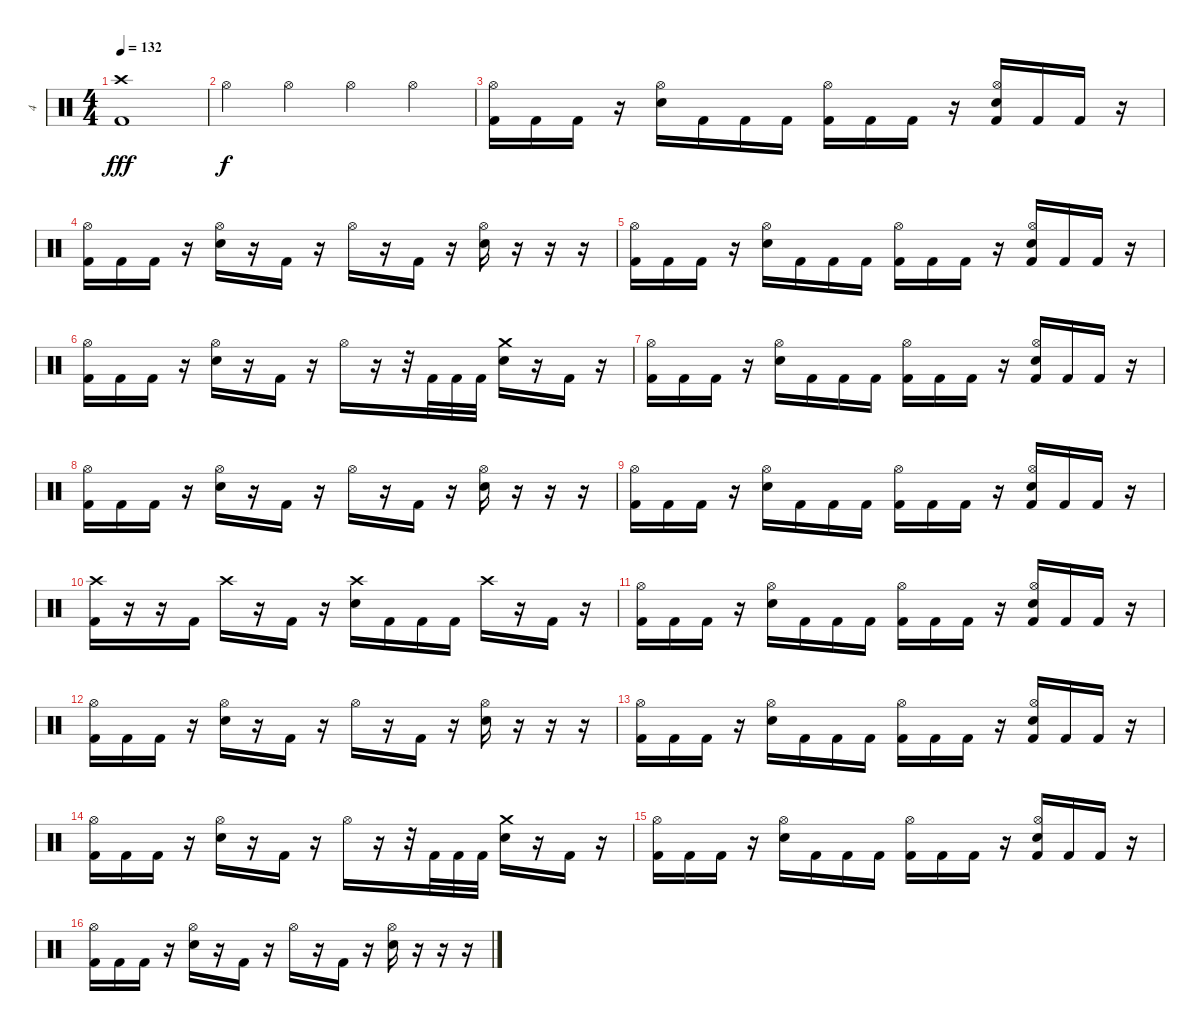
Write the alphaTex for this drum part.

\track ("4" "4") {instrument percussion}
\staff {score}
\articulation defaults
\ts (4 4)
\tempo 132
\clef neutral
\ks c
("Crash high (hit)" "Kick (hit) 2").1{dy fff} |
"Hi-Hat (open)".4{dy f} "Hi-Hat (open)".4 "Hi-Hat (open)".4 "Hi-Hat (open)".4 |
("Hi-Hat (open)" "Kick (hit) 2").16 "Kick (hit) 2".16 "Kick (hit) 2".16 r.16 ("Hi-Hat (open)" "Snare (hit) 2").16 "Kick (hit) 2".16 "Kick (hit) 2".16 "Kick (hit) 2".16 ("Hi-Hat (open)" "Kick (hit) 2").16 "Kick (hit) 2".16 "Kick (hit) 2".16 r.16 ("Hi-Hat (open)" "Snare (hit) 2" "Kick (hit) 2").16 "Kick (hit) 2".16 "Kick (hit) 2".16 r.16 |
("Hi-Hat (open)" "Kick (hit) 2").16 "Kick (hit) 2".16 "Kick (hit) 2".16 r.16 ("Hi-Hat (open)" "Snare (hit) 2").16 r.16 "Kick (hit) 2".16 r.16 "Hi-Hat (open)".16 r.16 "Kick (hit) 2".16 r.16 ("Hi-Hat (open)" "Snare (hit) 2").16 r.16 r.16 r.16 |
("Hi-Hat (open)" "Kick (hit) 2").16 "Kick (hit) 2".16 "Kick (hit) 2".16 r.16 ("Hi-Hat (open)" "Snare (hit) 2").16 "Kick (hit) 2".16 "Kick (hit) 2".16 "Kick (hit) 2".16 ("Hi-Hat (open)" "Kick (hit) 2").16 "Kick (hit) 2".16 "Kick (hit) 2".16 r.16 ("Hi-Hat (open)" "Snare (hit) 2" "Kick (hit) 2").16 "Kick (hit) 2".16 "Kick (hit) 2".16 r.16 |
("Hi-Hat (open)" "Kick (hit) 2").16 "Kick (hit) 2".16 "Kick (hit) 2".16 r.16 ("Hi-Hat (open)" "Snare (hit) 2").16 r.16 "Kick (hit) 2".16 r.16 "Hi-Hat (open)".16 r.16 r.32 "Kick (hit) 2".32 "Kick (hit) 2".32 "Kick (hit) 2".32 ("Crash medium (hit)" "Snare (hit) 2").16 r.16 "Kick (hit) 2".16 r.16 |
("Hi-Hat (open)" "Kick (hit) 2").16 "Kick (hit) 2".16 "Kick (hit) 2".16 r.16 ("Hi-Hat (open)" "Snare (hit) 2").16 "Kick (hit) 2".16 "Kick (hit) 2".16 "Kick (hit) 2".16 ("Hi-Hat (open)" "Kick (hit) 2").16 "Kick (hit) 2".16 "Kick (hit) 2".16 r.16 ("Hi-Hat (open)" "Snare (hit) 2" "Kick (hit) 2").16 "Kick (hit) 2".16 "Kick (hit) 2".16 r.16 |
("Hi-Hat (open)" "Kick (hit) 2").16 "Kick (hit) 2".16 "Kick (hit) 2".16 r.16 ("Hi-Hat (open)" "Snare (hit) 2").16 r.16 "Kick (hit) 2".16 r.16 "Hi-Hat (open)".16 r.16 "Kick (hit) 2".16 r.16 ("Hi-Hat (open)" "Snare (hit) 2").16 r.16 r.16 r.16 |
("Hi-Hat (open)" "Kick (hit) 2").16 "Kick (hit) 2".16 "Kick (hit) 2".16 r.16 ("Hi-Hat (open)" "Snare (hit) 2").16 "Kick (hit) 2".16 "Kick (hit) 2".16 "Kick (hit) 2".16 ("Hi-Hat (open)" "Kick (hit) 2").16 "Kick (hit) 2".16 "Kick (hit) 2".16 r.16 ("Hi-Hat (open)" "Snare (hit) 2" "Kick (hit) 2").16 "Kick (hit) 2".16 "Kick (hit) 2".16 r.16 |
("Crash high (hit)" "Kick (hit) 2").16 r.16 r.16 "Kick (hit) 2".16 "Crash high (hit)".16 r.16 "Kick (hit) 2".16 r.16 ("Crash high (hit)" "Snare (hit) 2").16 "Kick (hit) 2".16 "Kick (hit) 2".16 "Kick (hit) 2".16 "Crash high (hit)".16 r.16 "Kick (hit) 2".16 r.16 |
("Hi-Hat (open)" "Kick (hit) 2").16 "Kick (hit) 2".16 "Kick (hit) 2".16 r.16 ("Hi-Hat (open)" "Snare (hit) 2").16 "Kick (hit) 2".16 "Kick (hit) 2".16 "Kick (hit) 2".16 ("Hi-Hat (open)" "Kick (hit) 2").16 "Kick (hit) 2".16 "Kick (hit) 2".16 r.16 ("Hi-Hat (open)" "Snare (hit) 2" "Kick (hit) 2").16 "Kick (hit) 2".16 "Kick (hit) 2".16 r.16 |
("Hi-Hat (open)" "Kick (hit) 2").16 "Kick (hit) 2".16 "Kick (hit) 2".16 r.16 ("Hi-Hat (open)" "Snare (hit) 2").16 r.16 "Kick (hit) 2".16 r.16 "Hi-Hat (open)".16 r.16 "Kick (hit) 2".16 r.16 ("Hi-Hat (open)" "Snare (hit) 2").16 r.16 r.16 r.16 |
("Hi-Hat (open)" "Kick (hit) 2").16 "Kick (hit) 2".16 "Kick (hit) 2".16 r.16 ("Hi-Hat (open)" "Snare (hit) 2").16 "Kick (hit) 2".16 "Kick (hit) 2".16 "Kick (hit) 2".16 ("Hi-Hat (open)" "Kick (hit) 2").16 "Kick (hit) 2".16 "Kick (hit) 2".16 r.16 ("Hi-Hat (open)" "Snare (hit) 2" "Kick (hit) 2").16 "Kick (hit) 2".16 "Kick (hit) 2".16 r.16 |
("Hi-Hat (open)" "Kick (hit) 2").16 "Kick (hit) 2".16 "Kick (hit) 2".16 r.16 ("Hi-Hat (open)" "Snare (hit) 2").16 r.16 "Kick (hit) 2".16 r.16 "Hi-Hat (open)".16 r.16 r.32 "Kick (hit) 2".32 "Kick (hit) 2".32 "Kick (hit) 2".32 ("Crash medium (hit)" "Snare (hit) 2").16 r.16 "Kick (hit) 2".16 r.16 |
("Hi-Hat (open)" "Kick (hit) 2").16 "Kick (hit) 2".16 "Kick (hit) 2".16 r.16 ("Hi-Hat (open)" "Snare (hit) 2").16 "Kick (hit) 2".16 "Kick (hit) 2".16 "Kick (hit) 2".16 ("Hi-Hat (open)" "Kick (hit) 2").16 "Kick (hit) 2".16 "Kick (hit) 2".16 r.16 ("Hi-Hat (open)" "Snare (hit) 2" "Kick (hit) 2").16 "Kick (hit) 2".16 "Kick (hit) 2".16 r.16 |
("Hi-Hat (open)" "Kick (hit) 2").16 "Kick (hit) 2".16 "Kick (hit) 2".16 r.16 ("Hi-Hat (open)" "Snare (hit) 2").16 r.16 "Kick (hit) 2".16 r.16 "Hi-Hat (open)".16 r.16 "Kick (hit) 2".16 r.16 ("Hi-Hat (open)" "Snare (hit) 2").16 r.16 r.16 r.16
